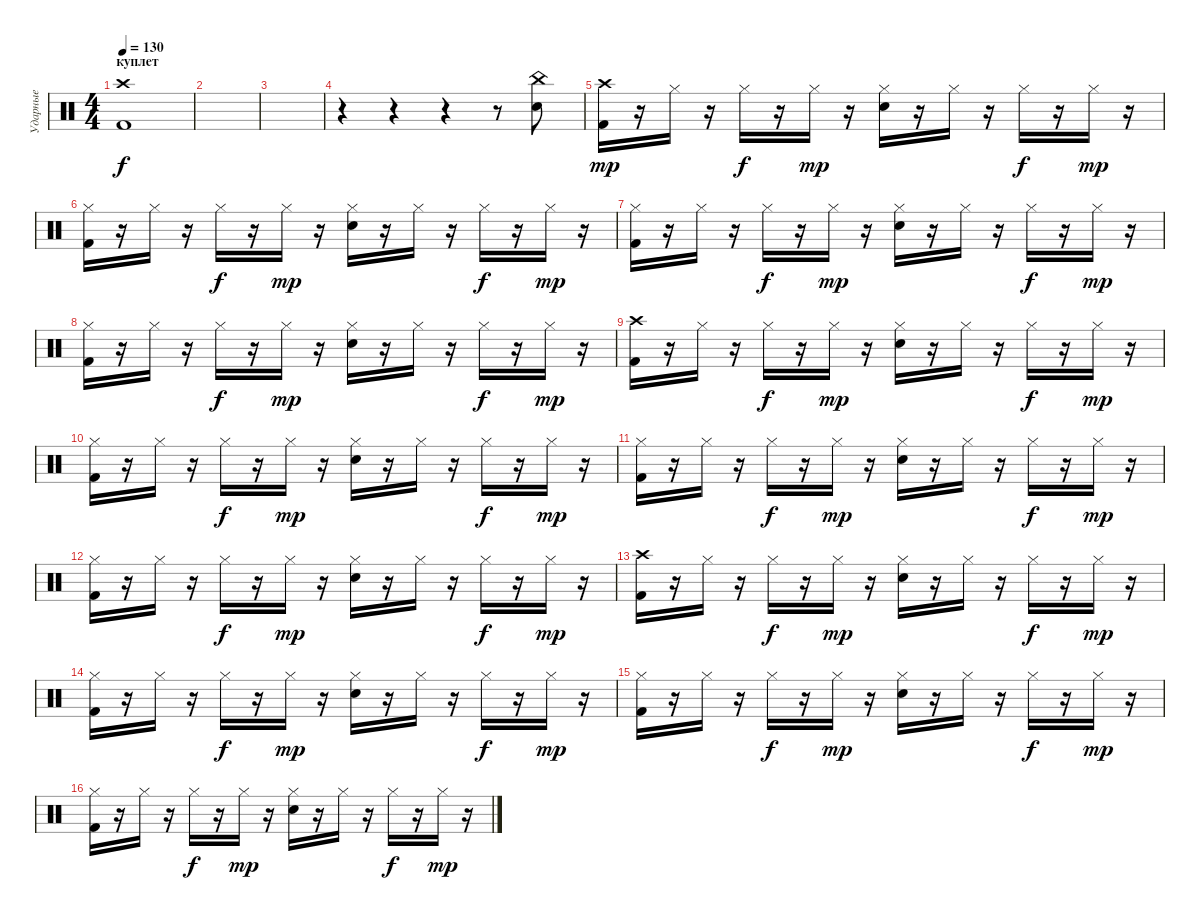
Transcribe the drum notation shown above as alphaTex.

\track ("Ударные" "Ударные") {instrument percussion}
\staff {score}
\articulation defaults
\ts (4 4)
\section ("" "куплет")
\tempo 130
\clef neutral
\ks c
("Crash high (hit)" "Kick (hit) 2").1{dy f} |
|
|
r.4 r.4 r.4 r.8 ("China (hit)" "Electric Snare (hit)").8 |
("Crash high (hit)" "Kick (hit) 2").16{dy mp} r.16 "Hi-Hat (closed)".16 r.16 "Hi-Hat (closed)".16{dy f} r.16 "Hi-Hat (closed)".16{dy mp} r.16 ("Hi-Hat (closed)" "Electric Snare (hit)").16 r.16 "Hi-Hat (closed)".16 r.16 "Hi-Hat (closed)".16{dy f} r.16 "Hi-Hat (closed)".16{dy mp} r.16 |
("Hi-Hat (closed)" "Kick (hit) 2").16 r.16 "Hi-Hat (closed)".16 r.16 "Hi-Hat (closed)".16{dy f} r.16 "Hi-Hat (closed)".16{dy mp} r.16 ("Hi-Hat (closed)" "Electric Snare (hit)").16 r.16 "Hi-Hat (closed)".16 r.16 "Hi-Hat (closed)".16{dy f} r.16 "Hi-Hat (closed)".16{dy mp} r.16 |
("Hi-Hat (closed)" "Kick (hit) 2").16 r.16 "Hi-Hat (closed)".16 r.16 "Hi-Hat (closed)".16{dy f} r.16 "Hi-Hat (closed)".16{dy mp} r.16 ("Hi-Hat (closed)" "Electric Snare (hit)").16 r.16 "Hi-Hat (closed)".16 r.16 "Hi-Hat (closed)".16{dy f} r.16 "Hi-Hat (closed)".16{dy mp} r.16 |
("Hi-Hat (closed)" "Kick (hit) 2").16 r.16 "Hi-Hat (closed)".16 r.16 "Hi-Hat (closed)".16{dy f} r.16 "Hi-Hat (closed)".16{dy mp} r.16 ("Hi-Hat (closed)" "Electric Snare (hit)").16 r.16 "Hi-Hat (closed)".16 r.16 "Hi-Hat (closed)".16{dy f} r.16 "Hi-Hat (closed)".16{dy mp} r.16 |
("Crash high (hit)" "Kick (hit) 2").16 r.16 "Hi-Hat (closed)".16 r.16 "Hi-Hat (closed)".16{dy f} r.16 "Hi-Hat (closed)".16{dy mp} r.16 ("Hi-Hat (closed)" "Electric Snare (hit)").16 r.16 "Hi-Hat (closed)".16 r.16 "Hi-Hat (closed)".16{dy f} r.16 "Hi-Hat (closed)".16{dy mp} r.16 |
("Hi-Hat (closed)" "Kick (hit) 2").16 r.16 "Hi-Hat (closed)".16 r.16 "Hi-Hat (closed)".16{dy f} r.16 "Hi-Hat (closed)".16{dy mp} r.16 ("Hi-Hat (closed)" "Electric Snare (hit)").16 r.16 "Hi-Hat (closed)".16 r.16 "Hi-Hat (closed)".16{dy f} r.16 "Hi-Hat (closed)".16{dy mp} r.16 |
("Hi-Hat (closed)" "Kick (hit) 2").16 r.16 "Hi-Hat (closed)".16 r.16 "Hi-Hat (closed)".16{dy f} r.16 "Hi-Hat (closed)".16{dy mp} r.16 ("Hi-Hat (closed)" "Electric Snare (hit)").16 r.16 "Hi-Hat (closed)".16 r.16 "Hi-Hat (closed)".16{dy f} r.16 "Hi-Hat (closed)".16{dy mp} r.16 |
("Hi-Hat (closed)" "Kick (hit) 2").16 r.16 "Hi-Hat (closed)".16 r.16 "Hi-Hat (closed)".16{dy f} r.16 "Hi-Hat (closed)".16{dy mp} r.16 ("Hi-Hat (closed)" "Electric Snare (hit)").16 r.16 "Hi-Hat (closed)".16 r.16 "Hi-Hat (closed)".16{dy f} r.16 "Hi-Hat (closed)".16{dy mp} r.16 |
("Crash high (hit)" "Kick (hit) 2").16 r.16 "Hi-Hat (closed)".16 r.16 "Hi-Hat (closed)".16{dy f} r.16 "Hi-Hat (closed)".16{dy mp} r.16 ("Hi-Hat (closed)" "Electric Snare (hit)").16 r.16 "Hi-Hat (closed)".16 r.16 "Hi-Hat (closed)".16{dy f} r.16 "Hi-Hat (closed)".16{dy mp} r.16 |
("Hi-Hat (closed)" "Kick (hit) 2").16 r.16 "Hi-Hat (closed)".16 r.16 "Hi-Hat (closed)".16{dy f} r.16 "Hi-Hat (closed)".16{dy mp} r.16 ("Hi-Hat (closed)" "Electric Snare (hit)").16 r.16 "Hi-Hat (closed)".16 r.16 "Hi-Hat (closed)".16{dy f} r.16 "Hi-Hat (closed)".16{dy mp} r.16 |
("Hi-Hat (closed)" "Kick (hit) 2").16 r.16 "Hi-Hat (closed)".16 r.16 "Hi-Hat (closed)".16{dy f} r.16 "Hi-Hat (closed)".16{dy mp} r.16 ("Hi-Hat (closed)" "Electric Snare (hit)").16 r.16 "Hi-Hat (closed)".16 r.16 "Hi-Hat (closed)".16{dy f} r.16 "Hi-Hat (closed)".16{dy mp} r.16 |
("Hi-Hat (closed)" "Kick (hit) 2").16 r.16 "Hi-Hat (closed)".16 r.16 "Hi-Hat (closed)".16{dy f} r.16 "Hi-Hat (closed)".16{dy mp} r.16 ("Hi-Hat (closed)" "Electric Snare (hit)").16 r.16 "Hi-Hat (closed)".16 r.16 "Hi-Hat (closed)".16{dy f} r.16 "Hi-Hat (closed)".16{dy mp} r.16
